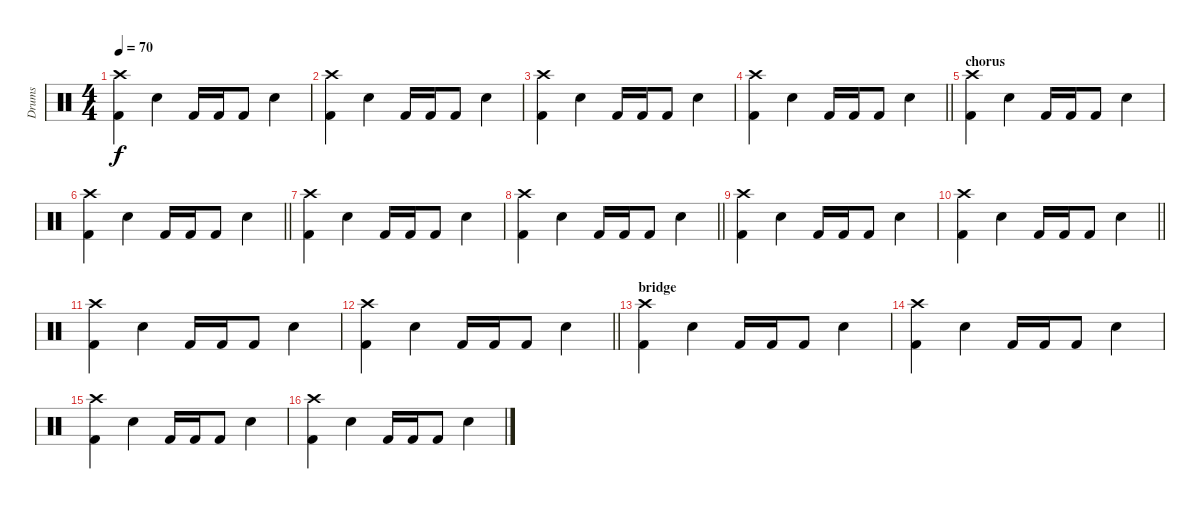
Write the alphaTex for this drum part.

\track ("Drums" "Drums") {instrument percussion}
\staff {score}
\articulation defaults
\ts (4 4)
\tempo 70
\clef neutral
\ks c
("Kick (hit) 2" "Crash high (hit)").4{dy f} "Electric Snare (hit)".4 "Kick (hit) 2".16 "Kick (hit) 2".16 "Kick (hit) 2".8 "Electric Snare (hit)".4 |
("Kick (hit) 2" "Crash high (hit)").4 "Electric Snare (hit)".4 "Kick (hit) 2".16 "Kick (hit) 2".16 "Kick (hit) 2".8 "Electric Snare (hit)".4 |
("Kick (hit) 2" "Crash high (hit)").4 "Electric Snare (hit)".4 "Kick (hit) 2".16 "Kick (hit) 2".16 "Kick (hit) 2".8 "Electric Snare (hit)".4 |
\barLineRight lightlight
("Kick (hit) 2" "Crash high (hit)").4 "Electric Snare (hit)".4 "Kick (hit) 2".16 "Kick (hit) 2".16 "Kick (hit) 2".8 "Electric Snare (hit)".4 |
\section ("" "chorus")
("Kick (hit) 2" "Crash high (hit)").4 "Electric Snare (hit)".4 "Kick (hit) 2".16 "Kick (hit) 2".16 "Kick (hit) 2".8 "Electric Snare (hit)".4 |
\barLineRight lightlight
("Kick (hit) 2" "Crash high (hit)").4 "Electric Snare (hit)".4 "Kick (hit) 2".16 "Kick (hit) 2".16 "Kick (hit) 2".8 "Electric Snare (hit)".4 |
("Kick (hit) 2" "Crash high (hit)").4 "Electric Snare (hit)".4 "Kick (hit) 2".16 "Kick (hit) 2".16 "Kick (hit) 2".8 "Electric Snare (hit)".4 |
\barLineRight lightlight
("Kick (hit) 2" "Crash high (hit)").4 "Electric Snare (hit)".4 "Kick (hit) 2".16 "Kick (hit) 2".16 "Kick (hit) 2".8 "Electric Snare (hit)".4 |
("Kick (hit) 2" "Crash high (hit)").4 "Electric Snare (hit)".4 "Kick (hit) 2".16 "Kick (hit) 2".16 "Kick (hit) 2".8 "Electric Snare (hit)".4 |
\barLineRight lightlight
("Kick (hit) 2" "Crash high (hit)").4 "Electric Snare (hit)".4 "Kick (hit) 2".16 "Kick (hit) 2".16 "Kick (hit) 2".8 "Electric Snare (hit)".4 |
("Kick (hit) 2" "Crash high (hit)").4 "Electric Snare (hit)".4 "Kick (hit) 2".16 "Kick (hit) 2".16 "Kick (hit) 2".8 "Electric Snare (hit)".4 |
\barLineRight lightlight
("Kick (hit) 2" "Crash high (hit)").4 "Electric Snare (hit)".4 "Kick (hit) 2".16 "Kick (hit) 2".16 "Kick (hit) 2".8 "Electric Snare (hit)".4 |
\section ("" "bridge")
("Kick (hit) 2" "Crash high (hit)").4 "Electric Snare (hit)".4 "Kick (hit) 2".16 "Kick (hit) 2".16 "Kick (hit) 2".8 "Electric Snare (hit)".4 |
("Kick (hit) 2" "Crash high (hit)").4 "Electric Snare (hit)".4 "Kick (hit) 2".16 "Kick (hit) 2".16 "Kick (hit) 2".8 "Electric Snare (hit)".4 |
("Kick (hit) 2" "Crash high (hit)").4 "Electric Snare (hit)".4 "Kick (hit) 2".16 "Kick (hit) 2".16 "Kick (hit) 2".8 "Electric Snare (hit)".4 |
("Kick (hit) 2" "Crash high (hit)").4 "Electric Snare (hit)".4 "Kick (hit) 2".16 "Kick (hit) 2".16 "Kick (hit) 2".8 "Electric Snare (hit)".4
